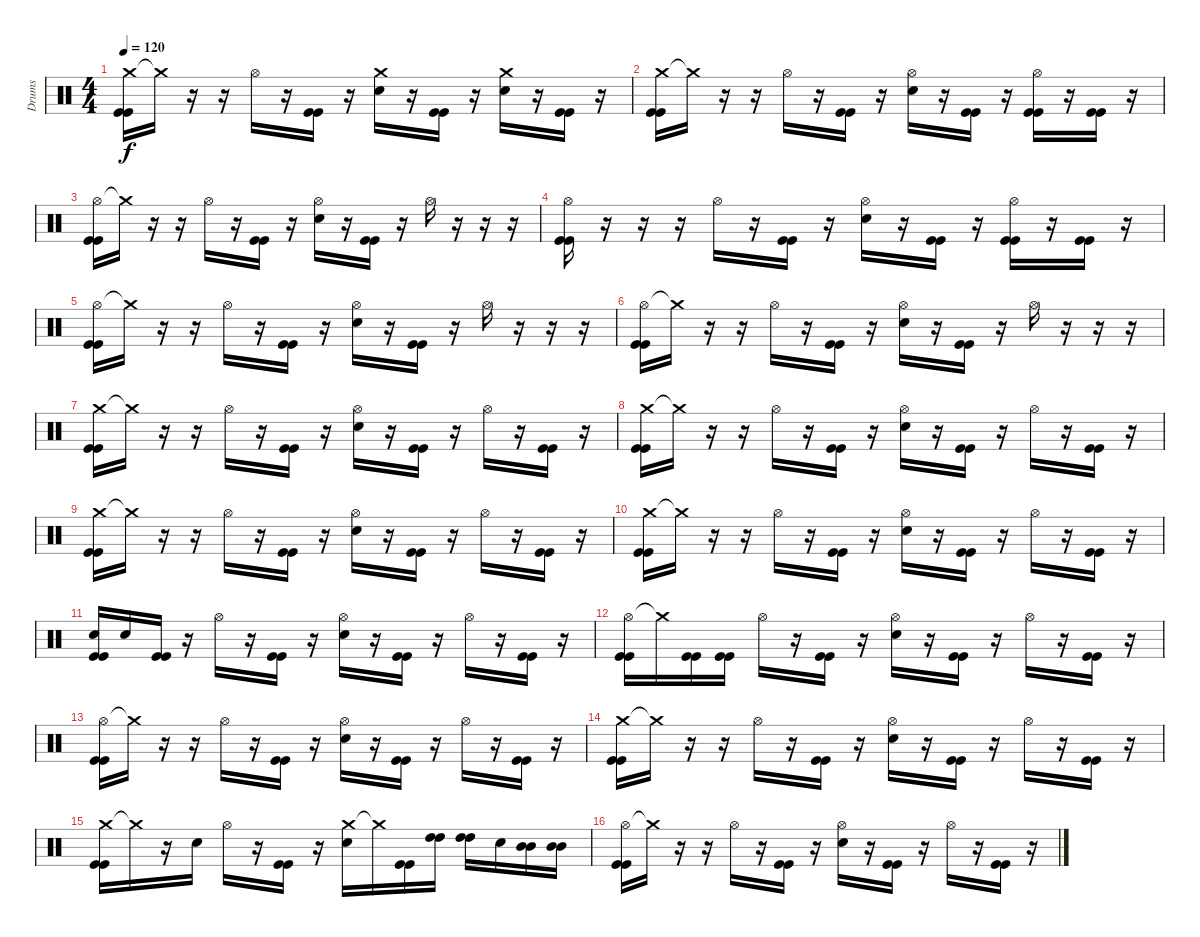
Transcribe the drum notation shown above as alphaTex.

\track ("Drums" "Drums") {instrument percussion}
\staff {score}
\articulation defaults
\ts (4 4)
\tempo 120
\clef neutral
\ks c
("Crash medium (hit)" "Kick (hit)" "Kick (hit)").16{dy f} "Crash medium (hit)"{t}.16 r.16 r.16 "Hi-Hat (open)".16 r.16 ("Kick (hit)" "Kick (hit)").16 r.16 ("Crash medium (hit)" "Electric Snare (hit)").16 r.16 ("Kick (hit)" "Kick (hit)").16 r.16 ("Crash medium (hit)" "Electric Snare (hit)").16 r.16 ("Kick (hit)" "Kick (hit)").16 r.16 |
("Crash medium (hit)" "Kick (hit)" "Kick (hit)").16 "Crash medium (hit)"{t}.16 r.16 r.16 "Hi-Hat (open)".16 r.16 ("Kick (hit)" "Kick (hit)").16 r.16 ("Hi-Hat (open)" "Electric Snare (hit)").16 r.16 ("Kick (hit)" "Kick (hit)").16 r.16 ("Hi-Hat (open)" "Kick (hit)" "Kick (hit)").16 r.16 ("Kick (hit)" "Kick (hit)").16 r.16 |
("Hi-Hat (open)" "Kick (hit)" "Kick (hit)").16 "Crash medium (hit)"{t}.16 r.16 r.16 "Hi-Hat (open)".16 r.16 ("Kick (hit)" "Kick (hit)").16 r.16 ("Hi-Hat (open)" "Electric Snare (hit)").16 r.16 ("Kick (hit)" "Kick (hit)").16 r.16 "Hi-Hat (open)".16 r.16 r.16 r.16 |
("Hi-Hat (open)" "Kick (hit)" "Kick (hit)").16 r.16 r.16 r.16 "Hi-Hat (open)".16 r.16 ("Kick (hit)" "Kick (hit)").16 r.16 ("Hi-Hat (open)" "Electric Snare (hit)").16 r.16 ("Kick (hit)" "Kick (hit)").16 r.16 ("Hi-Hat (open)" "Kick (hit)" "Kick (hit)").16 r.16 ("Kick (hit)" "Kick (hit)").16 r.16 |
("Hi-Hat (open)" "Kick (hit)" "Kick (hit)").16 "Crash medium (hit)"{t}.16 r.16 r.16 "Hi-Hat (open)".16 r.16 ("Kick (hit)" "Kick (hit)").16 r.16 ("Hi-Hat (open)" "Electric Snare (hit)").16 r.16 ("Kick (hit)" "Kick (hit)").16 r.16 "Hi-Hat (open)".16 r.16 r.16 r.16 |
("Hi-Hat (open)" "Kick (hit)" "Kick (hit)").16 "Crash medium (hit)"{t}.16 r.16 r.16 "Hi-Hat (open)".16 r.16 ("Kick (hit)" "Kick (hit)").16 r.16 ("Hi-Hat (open)" "Electric Snare (hit)").16 r.16 ("Kick (hit)" "Kick (hit)").16 r.16 "Hi-Hat (open)".16 r.16 r.16 r.16 |
("Crash medium (hit)" "Kick (hit)" "Kick (hit)").16 "Crash medium (hit)"{t}.16 r.16 r.16 "Hi-Hat (open)".16 r.16 ("Kick (hit)" "Kick (hit)").16 r.16 ("Hi-Hat (open)" "Electric Snare (hit)").16 r.16 ("Kick (hit)" "Kick (hit)").16 r.16 "Hi-Hat (open)".16 r.16 ("Kick (hit)" "Kick (hit)").16 r.16 |
("Crash medium (hit)" "Kick (hit)" "Kick (hit)").16 "Crash medium (hit)"{t}.16 r.16 r.16 "Hi-Hat (open)".16 r.16 ("Kick (hit)" "Kick (hit)").16 r.16 ("Hi-Hat (open)" "Electric Snare (hit)").16 r.16 ("Kick (hit)" "Kick (hit)").16 r.16 "Hi-Hat (open)".16 r.16 ("Kick (hit)" "Kick (hit)").16 r.16 |
("Crash medium (hit)" "Kick (hit)" "Kick (hit)").16 "Crash medium (hit)"{t}.16 r.16 r.16 "Hi-Hat (open)".16 r.16 ("Kick (hit)" "Kick (hit)").16 r.16 ("Hi-Hat (open)" "Electric Snare (hit)").16 r.16 ("Kick (hit)" "Kick (hit)").16 r.16 "Hi-Hat (open)".16 r.16 ("Kick (hit)" "Kick (hit)").16 r.16 |
("Crash medium (hit)" "Kick (hit)" "Kick (hit)").16 "Crash medium (hit)"{t}.16 r.16 r.16 "Hi-Hat (open)".16 r.16 ("Kick (hit)" "Kick (hit)").16 r.16 ("Hi-Hat (open)" "Electric Snare (hit)").16 r.16 ("Kick (hit)" "Kick (hit)").16 r.16 "Hi-Hat (open)".16 r.16 ("Kick (hit)" "Kick (hit)").16 r.16 |
("Electric Snare (hit)" "Kick (hit)" "Kick (hit)").16 "Electric Snare (hit)".16 ("Kick (hit)" "Kick (hit)").16 r.16 "Hi-Hat (open)".16 r.16 ("Kick (hit)" "Kick (hit)").16 r.16 ("Hi-Hat (open)" "Electric Snare (hit)").16 r.16 ("Kick (hit)" "Kick (hit)").16 r.16 "Hi-Hat (open)".16 r.16 ("Kick (hit)" "Kick (hit)").16 r.16 |
("Hi-Hat (open)" "Kick (hit)" "Kick (hit)").16 "Crash medium (hit)"{t}.16 ("Kick (hit)" "Kick (hit)").16 ("Kick (hit)" "Kick (hit)").16 "Hi-Hat (open)".16 r.16 ("Kick (hit)" "Kick (hit)").16 r.16 ("Hi-Hat (open)" "Electric Snare (hit)").16 r.16 ("Kick (hit)" "Kick (hit)").16 r.16 "Hi-Hat (open)".16 r.16 ("Kick (hit)" "Kick (hit)").16 r.16 |
("Hi-Hat (open)" "Kick (hit)" "Kick (hit)").16 "Crash medium (hit)"{t}.16 r.16 r.16 "Hi-Hat (open)".16 r.16 ("Kick (hit)" "Kick (hit)").16 r.16 ("Hi-Hat (open)" "Electric Snare (hit)").16 r.16 ("Kick (hit)" "Kick (hit)").16 r.16 "Hi-Hat (open)".16 r.16 ("Kick (hit)" "Kick (hit)").16 r.16 |
("Crash medium (hit)" "Kick (hit)" "Kick (hit)").16 "Crash medium (hit)"{t}.16 r.16 r.16 "Hi-Hat (open)".16 r.16 ("Kick (hit)" "Kick (hit)").16 r.16 ("Hi-Hat (open)" "Electric Snare (hit)").16 r.16 ("Kick (hit)" "Kick (hit)").16 r.16 "Hi-Hat (open)".16 r.16 ("Kick (hit)" "Kick (hit)").16 r.16 |
("Crash medium (hit)" "Kick (hit)" "Kick (hit)").16 "Crash medium (hit)"{t}.16 r.16 "Electric Snare (hit)".16 "Hi-Hat (open)".16 r.16 ("Kick (hit)" "Kick (hit)").16 r.16 ("Crash medium (hit)" "Electric Snare (hit)").16 "Crash medium (hit)"{t}.16 ("Kick (hit)" "Kick (hit)").16 ("High Tom (hit)" "High Tom (hit)").16 ("High Tom (hit)" "High Tom (hit)").16 "Electric Snare (hit)".16 ("Mid Tom (hit)" "Mid Tom (hit)").16 ("Mid Tom (hit)" "Mid Tom (hit)").16 |
("Hi-Hat (open)" "Kick (hit)" "Kick (hit)").16 "Crash medium (hit)"{t}.16 r.16 r.16 "Hi-Hat (open)".16 r.16 ("Kick (hit)" "Kick (hit)").16 r.16 ("Hi-Hat (open)" "Electric Snare (hit)").16 r.16 ("Kick (hit)" "Kick (hit)").16 r.16 "Hi-Hat (open)".16 r.16 ("Kick (hit)" "Kick (hit)").16 r.16
